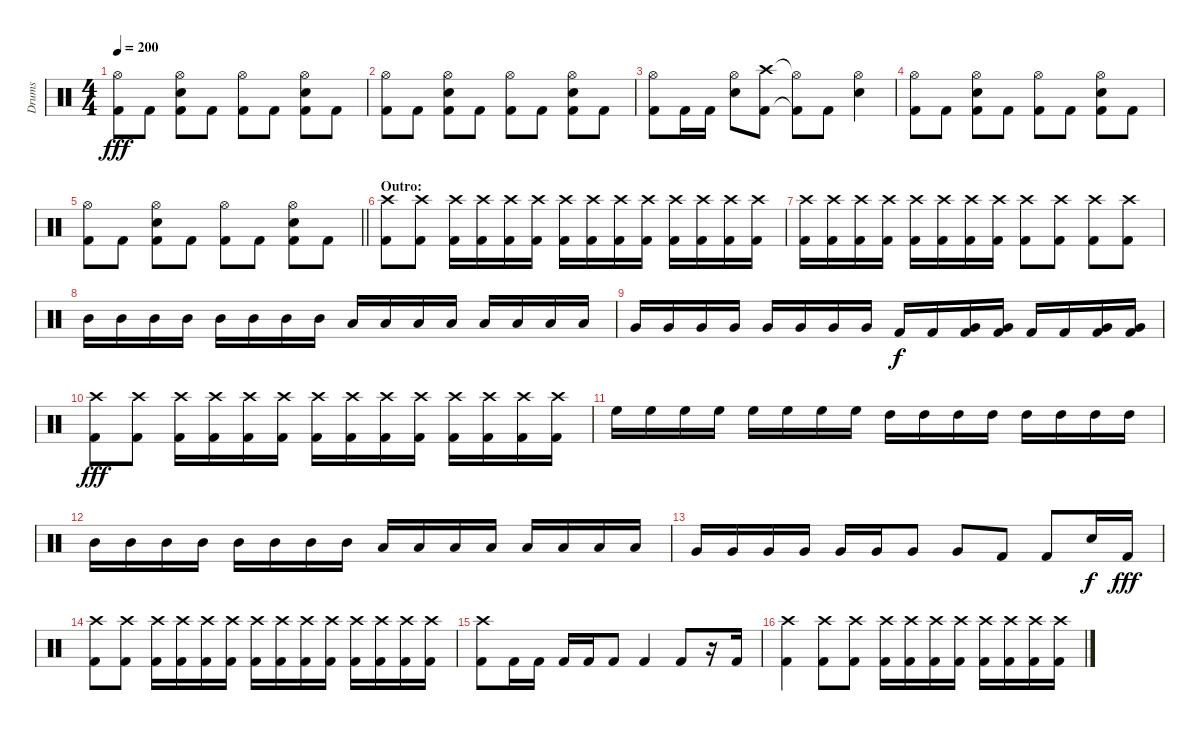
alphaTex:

\track ("Drums" "Drums") {instrument percussion}
\staff {score}
\articulation defaults
\ts (4 4)
\tempo 200
\clef neutral
\ks c
("Hi-Hat (open)" "Kick (hit) 2").8{dy fff} "Kick (hit) 2".8 ("Hi-Hat (open)" "Electric Snare (hit)" "Kick (hit) 2").8 "Kick (hit) 2".8 ("Hi-Hat (open)" "Kick (hit) 2").8 "Kick (hit) 2".8 ("Hi-Hat (open)" "Electric Snare (hit)" "Kick (hit) 2").8 "Kick (hit) 2".8 |
("Hi-Hat (open)" "Kick (hit) 2").8 "Kick (hit) 2".8 ("Hi-Hat (open)" "Electric Snare (hit)" "Kick (hit) 2").8 "Kick (hit) 2".8 ("Hi-Hat (open)" "Kick (hit) 2").8 "Kick (hit) 2".8 ("Hi-Hat (open)" "Electric Snare (hit)" "Kick (hit) 2").8 "Kick (hit) 2".8 |
("Hi-Hat (open)" "Kick (hit) 2").8 "Kick (hit) 2".16 "Kick (hit) 2".16 ("Hi-Hat (open)" "Electric Snare (hit)").8 ("Crash high (hit)" "Kick (hit) 2").8 ("Hi-Hat (open)"{t} "Kick (hit) 2"{t}).8 "Kick (hit) 2".8 ("Hi-Hat (open)" "Electric Snare (hit)").4 |
("Hi-Hat (open)" "Kick (hit) 2").8 "Kick (hit) 2".8 ("Hi-Hat (open)" "Electric Snare (hit)" "Kick (hit) 2").8 "Kick (hit) 2".8 ("Hi-Hat (open)" "Kick (hit) 2").8 "Kick (hit) 2".8 ("Hi-Hat (open)" "Electric Snare (hit)" "Kick (hit) 2").8 "Kick (hit) 2".8 |
\barLineRight lightlight
("Hi-Hat (open)" "Kick (hit) 2").8 "Kick (hit) 2".8 ("Hi-Hat (open)" "Electric Snare (hit)" "Kick (hit) 2").8 "Kick (hit) 2".8 ("Hi-Hat (open)" "Kick (hit) 2").8 "Kick (hit) 2".8 ("Hi-Hat (open)" "Electric Snare (hit)" "Kick (hit) 2").8 "Kick (hit) 2".8 |
\section ("" "Outro:")
("Crash high (hit)" "Kick (hit) 2").8 ("Crash high (hit)" "Kick (hit) 2").8 ("Crash high (hit)" "Kick (hit) 2").16 ("Crash high (hit)" "Kick (hit) 2").16 ("Crash high (hit)" "Kick (hit) 2").16 ("Crash high (hit)" "Kick (hit) 2").16 ("Crash high (hit)" "Kick (hit) 2").16 ("Crash high (hit)" "Kick (hit) 2").16 ("Crash high (hit)" "Kick (hit) 2").16 ("Crash high (hit)" "Kick (hit) 2").16 ("Crash high (hit)" "Kick (hit) 2").16 ("Crash high (hit)" "Kick (hit) 2").16 ("Crash high (hit)" "Kick (hit) 2").16 ("Crash high (hit)" "Kick (hit) 2").16 |
("Crash high (hit)" "Kick (hit) 2").16 ("Crash high (hit)" "Kick (hit) 2").16 ("Crash high (hit)" "Kick (hit) 2").16 ("Crash high (hit)" "Kick (hit) 2").16 ("Crash high (hit)" "Kick (hit) 2").16 ("Crash high (hit)" "Kick (hit) 2").16 ("Crash high (hit)" "Kick (hit) 2").16 ("Crash high (hit)" "Kick (hit) 2").16 ("Crash high (hit)" "Kick (hit) 2").8 ("Crash high (hit)" "Kick (hit) 2").8 ("Crash high (hit)" "Kick (hit) 2").8 ("Crash high (hit)" "Kick (hit) 2").8 |
"Mid Tom (hit)".16 "Mid Tom (hit)".16 "Mid Tom (hit)".16 "Mid Tom (hit)".16 "Mid Tom (hit)".16 "Mid Tom (hit)".16 "Mid Tom (hit)".16 "Mid Tom (hit)".16 "Low Tom (hit)".16 "Low Tom (hit)".16 "Low Tom (hit)".16 "Low Tom (hit)".16 "Low Tom (hit)".16 "Low Tom (hit)".16 "Low Tom (hit)".16 "Low Tom (hit)".16 |
"Very Low Tom (hit)".16 "Very Low Tom (hit)".16 "Very Low Tom (hit)".16 "Very Low Tom (hit)".16 "Very Low Tom (hit)".16 "Very Low Tom (hit)".16 "Very Low Tom (hit)".16 "Very Low Tom (hit)".16 "Kick (hit) 2".16{dy f} "Kick (hit) 2".16 ("Very Low Tom (hit)" "Kick (hit) 2").16 ("Very Low Tom (hit)" "Kick (hit) 2").16 "Kick (hit) 2".16 "Kick (hit) 2".16 ("Very Low Tom (hit)" "Kick (hit) 2").16 ("Very Low Tom (hit)" "Kick (hit) 2").16 |
("Crash high (hit)" "Kick (hit) 2").8{dy fff} ("Crash high (hit)" "Kick (hit) 2").8 ("Crash high (hit)" "Kick (hit) 2").16 ("Crash high (hit)" "Kick (hit) 2").16 ("Crash high (hit)" "Kick (hit) 2").16 ("Crash high (hit)" "Kick (hit) 2").16 ("Crash high (hit)" "Kick (hit) 2").16 ("Crash high (hit)" "Kick (hit) 2").16 ("Crash high (hit)" "Kick (hit) 2").16 ("Crash high (hit)" "Kick (hit) 2").16 ("Crash high (hit)" "Kick (hit) 2").16 ("Crash high (hit)" "Kick (hit) 2").16 ("Crash high (hit)" "Kick (hit) 2").16 ("Crash high (hit)" "Kick (hit) 2").16 |
"High Floor Tom (hit)".16 "High Floor Tom (hit)".16 "High Floor Tom (hit)".16 "High Floor Tom (hit)".16 "High Floor Tom (hit)".16 "High Floor Tom (hit)".16 "High Floor Tom (hit)".16 "High Floor Tom (hit)".16 "High Tom (hit)".16 "High Tom (hit)".16 "High Tom (hit)".16 "High Tom (hit)".16 "High Tom (hit)".16 "High Tom (hit)".16 "High Tom (hit)".16 "High Tom (hit)".16 |
"Mid Tom (hit)".16 "Mid Tom (hit)".16 "Mid Tom (hit)".16 "Mid Tom (hit)".16 "Mid Tom (hit)".16 "Mid Tom (hit)".16 "Mid Tom (hit)".16 "Mid Tom (hit)".16 "Low Tom (hit)".16 "Low Tom (hit)".16 "Low Tom (hit)".16 "Low Tom (hit)".16 "Low Tom (hit)".16 "Low Tom (hit)".16 "Low Tom (hit)".16 "Low Tom (hit)".16 |
"Very Low Tom (hit)".16 "Very Low Tom (hit)".16 "Very Low Tom (hit)".16 "Very Low Tom (hit)".16 "Very Low Tom (hit)".16 "Very Low Tom (hit)".16 "Very Low Tom (hit)".8 "Very Low Tom (hit)".8 "Kick (hit) 2".8 "Kick (hit) 2".8 "Electric Snare (hit)".16{dy f} "Kick (hit) 2".16{dy fff} |
("Crash high (hit)" "Kick (hit) 2").8 ("Crash high (hit)" "Kick (hit) 2").8 ("Crash high (hit)" "Kick (hit) 2").16 ("Crash high (hit)" "Kick (hit) 2").16 ("Crash high (hit)" "Kick (hit) 2").16 ("Crash high (hit)" "Kick (hit) 2").16 ("Crash high (hit)" "Kick (hit) 2").16 ("Crash high (hit)" "Kick (hit) 2").16 ("Crash high (hit)" "Kick (hit) 2").16 ("Crash high (hit)" "Kick (hit) 2").16 ("Crash high (hit)" "Kick (hit) 2").16 ("Crash high (hit)" "Kick (hit) 2").16 ("Crash high (hit)" "Kick (hit) 2").16 ("Crash high (hit)" "Kick (hit) 2").16 |
("Crash high (hit)" "Kick (hit) 2").8 "Kick (hit) 2".16 "Kick (hit) 2".16 "Kick (hit) 2".16 "Kick (hit) 2".16 "Kick (hit) 2".8 "Kick (hit) 2".4 "Kick (hit) 2".8 r.16 "Kick (hit) 2".16 |
("Crash high (hit)" "Kick (hit) 2").4 ("Crash high (hit)" "Kick (hit) 2").8 ("Crash high (hit)" "Kick (hit) 2").8 ("Crash high (hit)" "Kick (hit) 2").16 ("Crash high (hit)" "Kick (hit) 2").16 ("Crash high (hit)" "Kick (hit) 2").16 ("Crash high (hit)" "Kick (hit) 2").16 ("Crash high (hit)" "Kick (hit) 2").16 ("Crash high (hit)" "Kick (hit) 2").16 ("Crash high (hit)" "Kick (hit) 2").16 ("Crash high (hit)" "Kick (hit) 2").16
